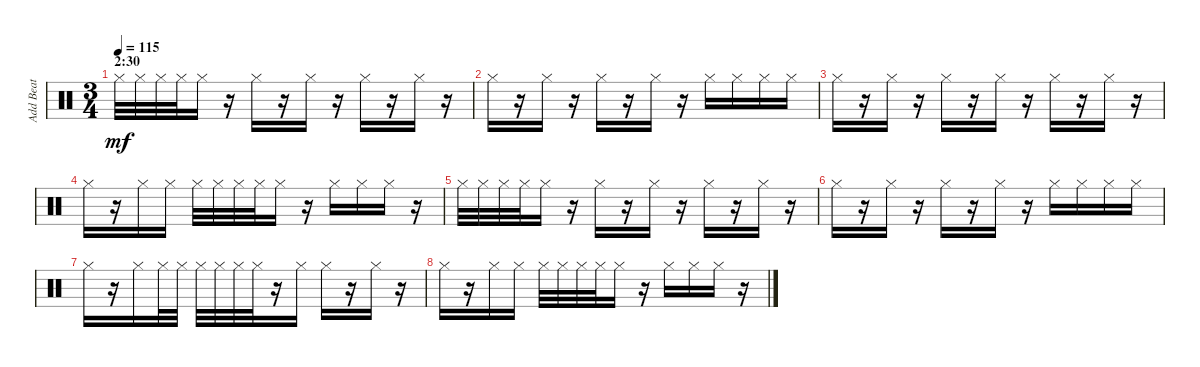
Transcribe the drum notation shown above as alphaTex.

\track ("Add Beat" "Add Beat") {instrument percussion}
\staff {score}
\articulation defaults
\ts (3 4)
\section ("" "2:30")
\tempo 115
\clef neutral
\ks c "Hi-Hat (closed)".32{dy mf} "Hi-Hat (closed)".32 "Hi-Hat (closed)".32 "Hi-Hat (closed)".32 "Hi-Hat (closed)".16
r.16 "Hi-Hat (closed)".16 r.16 "Hi-Hat (closed)".16 r.16 "Hi-Hat (closed)".16 r.16 "Hi-Hat (closed)".16 r.16 |
"Hi-Hat (closed)".16 r.16 "Hi-Hat (closed)".16 r.16 "Hi-Hat (closed)".16 r.16 "Hi-Hat (closed)".16 r.16 "Hi-Hat (closed)".16 "Hi-Hat (closed)".16 "Hi-Hat (closed)".16 "Hi-Hat (closed)".16 |
"Hi-Hat (closed)".16 r.16 "Hi-Hat (closed)".16 r.16 "Hi-Hat (closed)".16 r.16 "Hi-Hat (closed)".16 r.16 "Hi-Hat (closed)".16 r.16 "Hi-Hat (closed)".16 r.16 |
"Hi-Hat (closed)".16 r.16 "Hi-Hat (closed)".16 "Hi-Hat (closed)".16 "Hi-Hat (closed)".32 "Hi-Hat (closed)".32 "Hi-Hat (closed)".32 "Hi-Hat (closed)".32 "Hi-Hat (closed)".16 r.16 "Hi-Hat (closed)".16 "Hi-Hat (closed)".16 "Hi-Hat (closed)".16 r.16 |
"Hi-Hat (closed)".32 "Hi-Hat (closed)".32 "Hi-Hat (closed)".32 "Hi-Hat (closed)".32 "Hi-Hat (closed)".16 r.16 "Hi-Hat (closed)".16 r.16 "Hi-Hat (closed)".16 r.16 "Hi-Hat (closed)".16 r.16 "Hi-Hat (closed)".16 r.16 |
"Hi-Hat (closed)".16 r.16 "Hi-Hat (closed)".16 r.16 "Hi-Hat (closed)".16 r.16 "Hi-Hat (closed)".16 r.16 "Hi-Hat (closed)".16 "Hi-Hat (closed)".16 "Hi-Hat (closed)".16 "Hi-Hat (closed)".16 |
"Hi-Hat (closed)".16 r.16 "Hi-Hat (closed)".16 "Hi-Hat (closed)".32 "Hi-Hat (closed)".32 "Hi-Hat (closed)".32 "Hi-Hat (closed)".32 "Hi-Hat (closed)".32 "Hi-Hat (closed)".32 r.16 "Hi-Hat (closed)".16 "Hi-Hat (closed)".16 r.16 "Hi-Hat (closed)".16 r.16 |
"Hi-Hat (closed)".16 r.16 "Hi-Hat (closed)".16 "Hi-Hat (closed)".16 "Hi-Hat (closed)".32 "Hi-Hat (closed)".32 "Hi-Hat (closed)".32 "Hi-Hat (closed)".32 "Hi-Hat (closed)".16 r.16 "Hi-Hat (closed)".16 "Hi-Hat (closed)".16 "Hi-Hat (closed)".16 r.16
